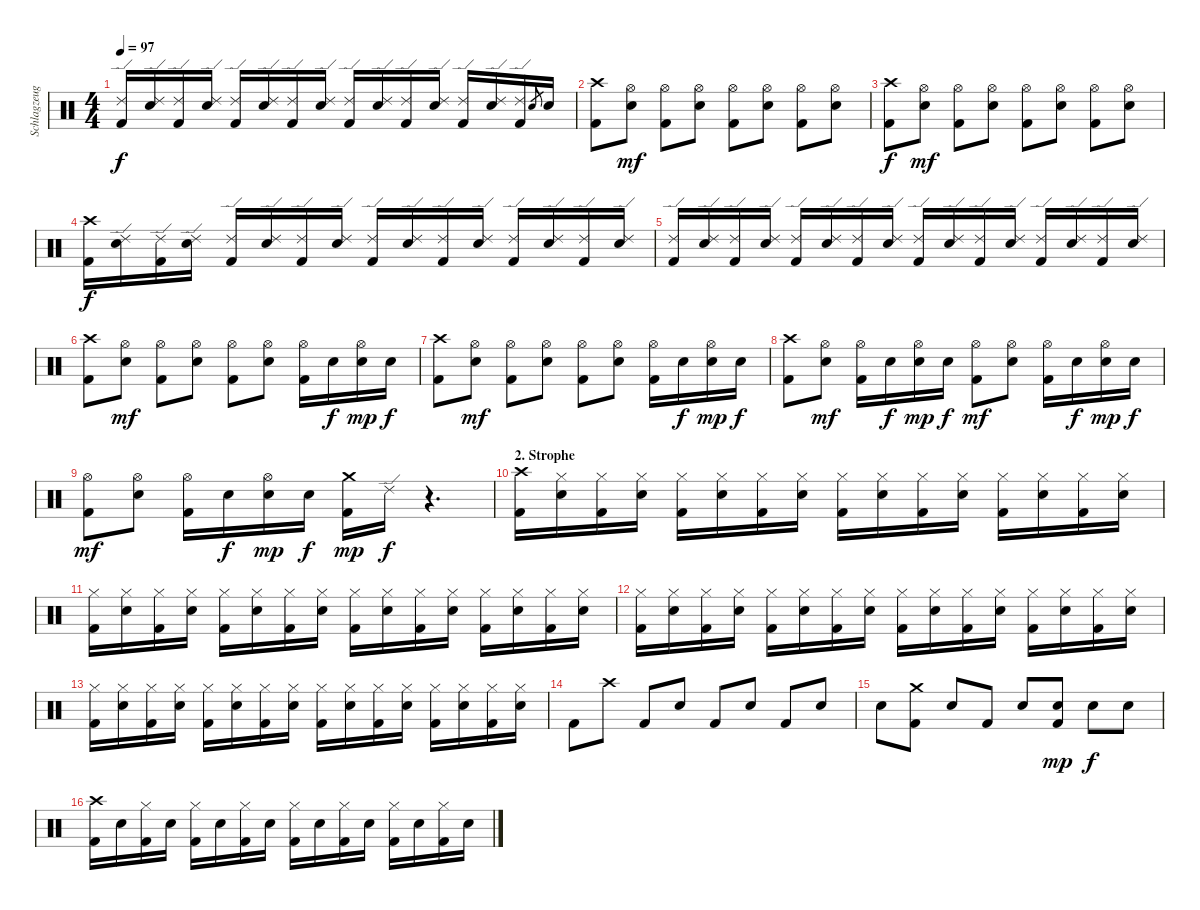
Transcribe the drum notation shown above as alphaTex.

\track ("Schlagzeug" "Schlagzeug") {instrument percussion}
\staff {score}
\articulation defaults
\ts (4 4)
\tempo 97
\clef neutral
\ks c
("Ride (edge) 2" "Kick (hit) 2").16{dy f} ("Ride (edge) 2" "Electric Snare (hit)").16 ("Ride (edge) 2" "Kick (hit) 2").16 ("Ride (edge) 2" "Electric Snare (hit)").16 ("Ride (edge) 2" "Kick (hit) 2").16 ("Ride (edge) 2" "Electric Snare (hit)").16 ("Ride (edge) 2" "Kick (hit) 2").16 ("Ride (edge) 2" "Electric Snare (hit)").16 ("Ride (edge) 2" "Kick (hit) 2").16 ("Ride (edge) 2" "Electric Snare (hit)").16 ("Ride (edge) 2" "Kick (hit) 2").16 ("Ride (edge) 2" "Electric Snare (hit)").16 ("Ride (edge) 2" "Kick (hit) 2").16 ("Ride (edge) 2" "Electric Snare (hit)").16 ("Ride (edge) 2" "Kick (hit) 2").16 "Electric Snare (hit)".8{gr} "Electric Snare (hit)".16 |
("Crash high (hit)" "Kick (hit) 2").8 ("Hi-Hat (open)" "Electric Snare (hit)").8{dy mf} ("Hi-Hat (open)" "Kick (hit) 2").8 ("Hi-Hat (open)" "Electric Snare (hit)").8 ("Hi-Hat (open)" "Kick (hit) 2").8 ("Hi-Hat (open)" "Electric Snare (hit)").8 ("Hi-Hat (open)" "Kick (hit) 2").8 ("Hi-Hat (open)" "Electric Snare (hit)").8 |
("Crash high (hit)" "Kick (hit) 2").8{dy f} ("Hi-Hat (open)" "Electric Snare (hit)").8{dy mf} ("Hi-Hat (open)" "Kick (hit) 2").8 ("Hi-Hat (open)" "Electric Snare (hit)").8 ("Hi-Hat (open)" "Kick (hit) 2").8 ("Hi-Hat (open)" "Electric Snare (hit)").8 ("Hi-Hat (open)" "Kick (hit) 2").8 ("Hi-Hat (open)" "Electric Snare (hit)").8 |
("Crash high (hit)" "Kick (hit) 2").16{dy f} ("Ride (edge) 2" "Electric Snare (hit)").16 ("Ride (edge) 2" "Kick (hit) 2").16 ("Ride (edge) 2" "Electric Snare (hit)").16 ("Ride (edge) 2" "Kick (hit) 2").16 ("Ride (edge) 2" "Electric Snare (hit)").16 ("Ride (edge) 2" "Kick (hit) 2").16 ("Ride (edge) 2" "Electric Snare (hit)").16 ("Ride (edge) 2" "Kick (hit) 2").16 ("Ride (edge) 2" "Electric Snare (hit)").16 ("Ride (edge) 2" "Kick (hit) 2").16 ("Ride (edge) 2" "Electric Snare (hit)").16 ("Ride (edge) 2" "Kick (hit) 2").16 ("Ride (edge) 2" "Electric Snare (hit)").16 ("Ride (edge) 2" "Kick (hit) 2").16 ("Ride (edge) 2" "Electric Snare (hit)").16 |
("Ride (edge) 2" "Kick (hit) 2").16 ("Ride (edge) 2" "Electric Snare (hit)").16 ("Ride (edge) 2" "Kick (hit) 2").16 ("Ride (edge) 2" "Electric Snare (hit)").16 ("Ride (edge) 2" "Kick (hit) 2").16 ("Ride (edge) 2" "Electric Snare (hit)").16 ("Ride (edge) 2" "Kick (hit) 2").16 ("Ride (edge) 2" "Electric Snare (hit)").16 ("Ride (edge) 2" "Kick (hit) 2").16 ("Ride (edge) 2" "Electric Snare (hit)").16 ("Ride (edge) 2" "Kick (hit) 2").16 ("Ride (edge) 2" "Electric Snare (hit)").16 ("Ride (edge) 2" "Kick (hit) 2").16 ("Ride (edge) 2" "Electric Snare (hit)").16 ("Ride (edge) 2" "Kick (hit) 2").16 ("Ride (edge) 2" "Electric Snare (hit)").16 |
("Crash high (hit)" "Kick (hit) 2").8 ("Hi-Hat (open)" "Electric Snare (hit)").8{dy mf} ("Hi-Hat (open)" "Kick (hit) 2").8 ("Hi-Hat (open)" "Electric Snare (hit)").8 ("Hi-Hat (open)" "Kick (hit) 2").8 ("Hi-Hat (open)" "Electric Snare (hit)").8 ("Hi-Hat (open)" "Kick (hit) 2").16 "Electric Snare (hit)".16{dy f} ("Hi-Hat (open)" "Electric Snare (hit)").16{dy mp} "Electric Snare (hit)".16{dy f} |
("Crash high (hit)" "Kick (hit) 2").8 ("Hi-Hat (open)" "Electric Snare (hit)").8{dy mf} ("Hi-Hat (open)" "Kick (hit) 2").8 ("Hi-Hat (open)" "Electric Snare (hit)").8 ("Hi-Hat (open)" "Kick (hit) 2").8 ("Hi-Hat (open)" "Electric Snare (hit)").8 ("Hi-Hat (open)" "Kick (hit) 2").16 "Electric Snare (hit)".16{dy f} ("Hi-Hat (open)" "Electric Snare (hit)").16{dy mp} "Electric Snare (hit)".16{dy f} |
("Crash high (hit)" "Kick (hit) 2").8 ("Hi-Hat (open)" "Electric Snare (hit)").8{dy mf} ("Hi-Hat (open)" "Kick (hit) 2").16 "Electric Snare (hit)".16{dy f} ("Hi-Hat (open)" "Electric Snare (hit)").16{dy mp} "Electric Snare (hit)".16{dy f} ("Hi-Hat (open)" "Kick (hit) 2").8{dy mf} ("Hi-Hat (open)" "Electric Snare (hit)").8 ("Hi-Hat (open)" "Kick (hit) 2").16 "Electric Snare (hit)".16{dy f} ("Hi-Hat (open)" "Electric Snare (hit)").16{dy mp} "Electric Snare (hit)".16{dy f} |
("Hi-Hat (open)" "Kick (hit) 2").8{dy mf} ("Hi-Hat (open)" "Electric Snare (hit)").8 ("Hi-Hat (open)" "Kick (hit) 2").16 "Electric Snare (hit)".16{dy f} ("Hi-Hat (open)" "Electric Snare (hit)").16{dy mp} "Electric Snare (hit)".16{dy f} ("Crash medium (hit)" "Kick (hit) 2").16{dy mp} "Ride (edge) 2".16{dy f} r.4{d} |
\section ("" "2. Strophe")
("Crash high (hit)" "Kick (hit) 2").16 ("Hi-Hat (closed)" "Electric Snare (hit)").16 ("Hi-Hat (closed)" "Kick (hit) 2").16 ("Hi-Hat (closed)" "Electric Snare (hit)").16 ("Hi-Hat (closed)" "Kick (hit) 2").16 ("Hi-Hat (closed)" "Electric Snare (hit)").16 ("Hi-Hat (closed)" "Kick (hit) 2").16 ("Hi-Hat (closed)" "Electric Snare (hit)").16 ("Hi-Hat (closed)" "Kick (hit) 2").16 ("Hi-Hat (closed)" "Electric Snare (hit)").16 ("Hi-Hat (closed)" "Kick (hit) 2").16 ("Hi-Hat (closed)" "Electric Snare (hit)").16 ("Hi-Hat (closed)" "Kick (hit) 2").16 ("Hi-Hat (closed)" "Electric Snare (hit)").16 ("Hi-Hat (closed)" "Kick (hit) 2").16 ("Hi-Hat (closed)" "Electric Snare (hit)").16 |
("Hi-Hat (closed)" "Kick (hit) 2").16 ("Hi-Hat (closed)" "Electric Snare (hit)").16 ("Hi-Hat (closed)" "Kick (hit) 2").16 ("Hi-Hat (closed)" "Electric Snare (hit)").16 ("Hi-Hat (closed)" "Kick (hit) 2").16 ("Hi-Hat (closed)" "Electric Snare (hit)").16 ("Hi-Hat (closed)" "Kick (hit) 2").16 ("Hi-Hat (closed)" "Electric Snare (hit)").16 ("Hi-Hat (closed)" "Kick (hit) 2").16 ("Hi-Hat (closed)" "Electric Snare (hit)").16 ("Hi-Hat (closed)" "Kick (hit) 2").16 ("Hi-Hat (closed)" "Electric Snare (hit)").16 ("Hi-Hat (closed)" "Kick (hit) 2").16 ("Hi-Hat (closed)" "Electric Snare (hit)").16 ("Hi-Hat (closed)" "Kick (hit) 2").16 ("Hi-Hat (closed)" "Electric Snare (hit)").16 |
("Hi-Hat (closed)" "Kick (hit) 2").16 ("Hi-Hat (closed)" "Electric Snare (hit)").16 ("Hi-Hat (closed)" "Kick (hit) 2").16 ("Hi-Hat (closed)" "Electric Snare (hit)").16 ("Hi-Hat (closed)" "Kick (hit) 2").16 ("Hi-Hat (closed)" "Electric Snare (hit)").16 ("Hi-Hat (closed)" "Kick (hit) 2").16 ("Hi-Hat (closed)" "Electric Snare (hit)").16 ("Hi-Hat (closed)" "Kick (hit) 2").16 ("Hi-Hat (closed)" "Electric Snare (hit)").16 ("Hi-Hat (closed)" "Kick (hit) 2").16 ("Hi-Hat (closed)" "Electric Snare (hit)").16 ("Hi-Hat (closed)" "Kick (hit) 2").16 ("Hi-Hat (closed)" "Electric Snare (hit)").16 ("Hi-Hat (closed)" "Kick (hit) 2").16 ("Hi-Hat (closed)" "Electric Snare (hit)").16 |
("Hi-Hat (closed)" "Kick (hit) 2").16 ("Hi-Hat (closed)" "Electric Snare (hit)").16 ("Hi-Hat (closed)" "Kick (hit) 2").16 ("Hi-Hat (closed)" "Electric Snare (hit)").16 ("Hi-Hat (closed)" "Kick (hit) 2").16 ("Hi-Hat (closed)" "Electric Snare (hit)").16 ("Hi-Hat (closed)" "Kick (hit) 2").16 ("Hi-Hat (closed)" "Electric Snare (hit)").16 ("Hi-Hat (closed)" "Kick (hit) 2").16 ("Hi-Hat (closed)" "Electric Snare (hit)").16 ("Hi-Hat (closed)" "Kick (hit) 2").16 ("Hi-Hat (closed)" "Electric Snare (hit)").16 ("Hi-Hat (closed)" "Kick (hit) 2").16 ("Hi-Hat (closed)" "Electric Snare (hit)").16 ("Hi-Hat (closed)" "Kick (hit) 2").16 ("Hi-Hat (closed)" "Electric Snare (hit)").16 |
"Kick (hit) 2".8 "Crash high (hit)".8 "Kick (hit) 2".8 "Electric Snare (hit)".8 "Kick (hit) 2".8 "Electric Snare (hit)".8 "Kick (hit) 2".8 "Electric Snare (hit)".8 |
"Electric Snare (hit)".8 ("Crash medium (hit)" "Kick (hit) 2").8 "Electric Snare (hit)".8 "Kick (hit) 2".8 "Electric Snare (hit)".8 ("Electric Snare (hit)" "Kick (hit) 2").8{dy mp} "Electric Snare (hit)".8{dy f} "Electric Snare (hit)".8 |
("Crash high (hit)" "Kick (hit) 2").16 "Electric Snare (hit)".16 ("Hi-Hat (closed)" "Kick (hit) 2").16 "Electric Snare (hit)".16 ("Hi-Hat (closed)" "Kick (hit) 2").16 "Electric Snare (hit)".16 ("Hi-Hat (closed)" "Kick (hit) 2").16 "Electric Snare (hit)".16 ("Hi-Hat (closed)" "Kick (hit) 2").16 "Electric Snare (hit)".16 ("Hi-Hat (closed)" "Kick (hit) 2").16 "Electric Snare (hit)".16 ("Hi-Hat (closed)" "Kick (hit) 2").16 "Electric Snare (hit)".16 ("Hi-Hat (closed)" "Kick (hit) 2").16 "Electric Snare (hit)".16
